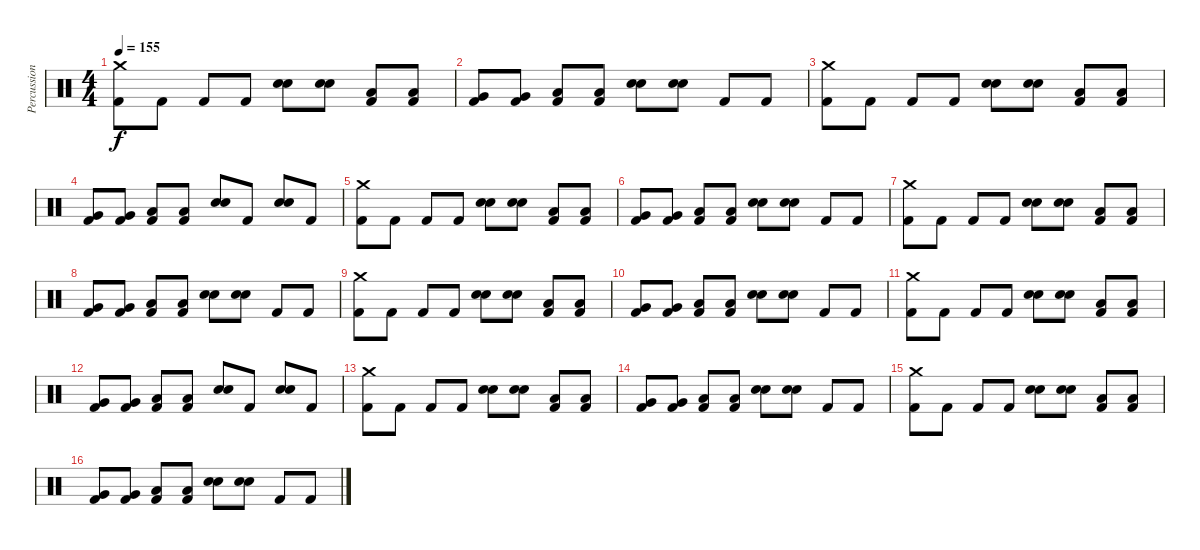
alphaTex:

\track ("Percussion" "Percussion") {instrument percussion}
\staff {score}
\articulation defaults
\ts (4 4)
\tempo 155
\clef neutral
\ks c
("Crash medium (hit)" "Kick (hit) 2").8{dy f} "Kick (hit) 2".8 "Kick (hit) 2".8 "Kick (hit) 2".8 ("Snare (hit) 2" "Electric Snare (hit)").8 ("Snare (hit) 2" "Electric Snare (hit)").8 ("Low Tom (hit)" "Kick (hit) 2").8 ("Low Tom (hit)" "Kick (hit) 2").8 |
("Very Low Tom (hit)" "Kick (hit) 2").8 ("Very Low Tom (hit)" "Kick (hit) 2").8 ("Low Floor Tom (hit)" "Kick (hit) 2").8 ("Low Floor Tom (hit)" "Kick (hit) 2").8 ("Snare (hit) 2" "Electric Snare (hit)").8 ("Snare (hit) 2" "Electric Snare (hit)").8 "Kick (hit) 2".8 "Kick (hit) 2".8 |
("Crash medium (hit)" "Kick (hit) 2").8 "Kick (hit) 2".8 "Kick (hit) 2".8 "Kick (hit) 2".8 ("Snare (hit) 2" "Electric Snare (hit)").8 ("Snare (hit) 2" "Electric Snare (hit)").8 ("Low Tom (hit)" "Kick (hit) 2").8 ("Low Tom (hit)" "Kick (hit) 2").8 |
("Very Low Tom (hit)" "Kick (hit) 2").8 ("Very Low Tom (hit)" "Kick (hit) 2").8 ("Low Floor Tom (hit)" "Kick (hit) 2").8 ("Low Floor Tom (hit)" "Kick (hit) 2").8 ("Snare (hit) 2" "Electric Snare (hit)").8 "Kick (hit) 2".8 ("Snare (hit) 2" "Electric Snare (hit)").8 "Kick (hit) 2".8 |
("Crash medium (hit)" "Kick (hit) 2").8 "Kick (hit) 2".8 "Kick (hit) 2".8 "Kick (hit) 2".8 ("Snare (hit) 2" "Electric Snare (hit)").8 ("Snare (hit) 2" "Electric Snare (hit)").8 ("Low Tom (hit)" "Kick (hit) 2").8 ("Low Tom (hit)" "Kick (hit) 2").8 |
("Very Low Tom (hit)" "Kick (hit) 2").8 ("Very Low Tom (hit)" "Kick (hit) 2").8 ("Low Floor Tom (hit)" "Kick (hit) 2").8 ("Low Floor Tom (hit)" "Kick (hit) 2").8 ("Snare (hit) 2" "Electric Snare (hit)").8 ("Snare (hit) 2" "Electric Snare (hit)").8 "Kick (hit) 2".8 "Kick (hit) 2".8 |
("Crash medium (hit)" "Kick (hit) 2").8 "Kick (hit) 2".8 "Kick (hit) 2".8 "Kick (hit) 2".8 ("Snare (hit) 2" "Electric Snare (hit)").8 ("Snare (hit) 2" "Electric Snare (hit)").8 ("Low Tom (hit)" "Kick (hit) 2").8 ("Low Tom (hit)" "Kick (hit) 2").8 |
("Very Low Tom (hit)" "Kick (hit) 2").8 ("Very Low Tom (hit)" "Kick (hit) 2").8 ("Low Floor Tom (hit)" "Kick (hit) 2").8 ("Low Floor Tom (hit)" "Kick (hit) 2").8 ("Snare (hit) 2" "Electric Snare (hit)").8 ("Snare (hit) 2" "Electric Snare (hit)").8 "Kick (hit) 2".8 "Kick (hit) 2".8 |
("Crash medium (hit)" "Kick (hit) 2").8 "Kick (hit) 2".8 "Kick (hit) 2".8 "Kick (hit) 2".8 ("Snare (hit) 2" "Electric Snare (hit)").8 ("Snare (hit) 2" "Electric Snare (hit)").8 ("Low Tom (hit)" "Kick (hit) 2").8 ("Low Tom (hit)" "Kick (hit) 2").8 |
("Very Low Tom (hit)" "Kick (hit) 2").8 ("Very Low Tom (hit)" "Kick (hit) 2").8 ("Low Floor Tom (hit)" "Kick (hit) 2").8 ("Low Floor Tom (hit)" "Kick (hit) 2").8 ("Snare (hit) 2" "Electric Snare (hit)").8 ("Snare (hit) 2" "Electric Snare (hit)").8 "Kick (hit) 2".8 "Kick (hit) 2".8 |
("Crash medium (hit)" "Kick (hit) 2").8 "Kick (hit) 2".8 "Kick (hit) 2".8 "Kick (hit) 2".8 ("Snare (hit) 2" "Electric Snare (hit)").8 ("Snare (hit) 2" "Electric Snare (hit)").8 ("Low Tom (hit)" "Kick (hit) 2").8 ("Low Tom (hit)" "Kick (hit) 2").8 |
("Very Low Tom (hit)" "Kick (hit) 2").8 ("Very Low Tom (hit)" "Kick (hit) 2").8 ("Low Floor Tom (hit)" "Kick (hit) 2").8 ("Low Floor Tom (hit)" "Kick (hit) 2").8 ("Snare (hit) 2" "Electric Snare (hit)").8 "Kick (hit) 2".8 ("Snare (hit) 2" "Electric Snare (hit)").8 "Kick (hit) 2".8 |
("Crash medium (hit)" "Kick (hit) 2").8 "Kick (hit) 2".8 "Kick (hit) 2".8 "Kick (hit) 2".8 ("Snare (hit) 2" "Electric Snare (hit)").8 ("Snare (hit) 2" "Electric Snare (hit)").8 ("Low Tom (hit)" "Kick (hit) 2").8 ("Low Tom (hit)" "Kick (hit) 2").8 |
("Very Low Tom (hit)" "Kick (hit) 2").8 ("Very Low Tom (hit)" "Kick (hit) 2").8 ("Low Floor Tom (hit)" "Kick (hit) 2").8 ("Low Floor Tom (hit)" "Kick (hit) 2").8 ("Snare (hit) 2" "Electric Snare (hit)").8 ("Snare (hit) 2" "Electric Snare (hit)").8 "Kick (hit) 2".8 "Kick (hit) 2".8 |
("Crash medium (hit)" "Kick (hit) 2").8 "Kick (hit) 2".8 "Kick (hit) 2".8 "Kick (hit) 2".8 ("Snare (hit) 2" "Electric Snare (hit)").8 ("Snare (hit) 2" "Electric Snare (hit)").8 ("Low Tom (hit)" "Kick (hit) 2").8 ("Low Tom (hit)" "Kick (hit) 2").8 |
("Very Low Tom (hit)" "Kick (hit) 2").8 ("Very Low Tom (hit)" "Kick (hit) 2").8 ("Low Floor Tom (hit)" "Kick (hit) 2").8 ("Low Floor Tom (hit)" "Kick (hit) 2").8 ("Snare (hit) 2" "Electric Snare (hit)").8 ("Snare (hit) 2" "Electric Snare (hit)").8 "Kick (hit) 2".8 "Kick (hit) 2".8
